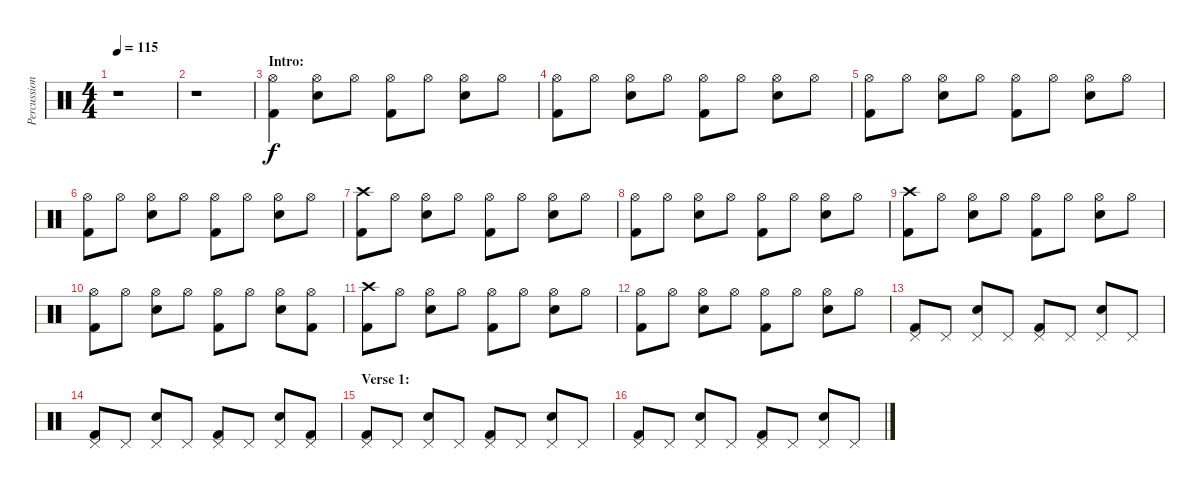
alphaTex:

\track ("Percussion" "Percussion") {instrument percussion}
\staff {score}
\articulation defaults
\ts (4 4)
\tempo 115
\clef neutral
\ks c
r.1{dy f} |
r.1 |
\section ("" "Intro:")
("Hi-Hat (open)" "Kick (hit) 2").4 ("Hi-Hat (open)" "Snare (hit) 2").8 "Hi-Hat (open)".8 ("Hi-Hat (open)" "Kick (hit) 2").8 "Hi-Hat (open)".8 ("Hi-Hat (open)" "Snare (hit) 2").8 "Hi-Hat (open)".8 |
("Hi-Hat (open)" "Kick (hit) 2").8 "Hi-Hat (open)".8 ("Hi-Hat (open)" "Snare (hit) 2").8 "Hi-Hat (open)".8 ("Hi-Hat (open)" "Kick (hit) 2").8 "Hi-Hat (open)".8 ("Hi-Hat (open)" "Snare (hit) 2").8 "Hi-Hat (open)".8 |
("Hi-Hat (open)" "Kick (hit) 2").8 "Hi-Hat (open)".8 ("Hi-Hat (open)" "Snare (hit) 2").8 "Hi-Hat (open)".8 ("Hi-Hat (open)" "Kick (hit) 2").8 "Hi-Hat (open)".8 ("Hi-Hat (open)" "Snare (hit) 2").8 "Hi-Hat (open)".8 |
("Hi-Hat (open)" "Kick (hit) 2").8 "Hi-Hat (open)".8 ("Hi-Hat (open)" "Snare (hit) 2").8 "Hi-Hat (open)".8 ("Hi-Hat (open)" "Kick (hit) 2").8 "Hi-Hat (open)".8 ("Hi-Hat (open)" "Snare (hit) 2").8 "Hi-Hat (open)".8 |
("Crash high (hit)" "Kick (hit) 2").8 "Hi-Hat (open)".8 ("Hi-Hat (open)" "Snare (hit) 2").8 "Hi-Hat (open)".8 ("Hi-Hat (open)" "Kick (hit) 2").8 "Hi-Hat (open)".8 ("Hi-Hat (open)" "Snare (hit) 2").8 "Hi-Hat (open)".8 |
("Hi-Hat (open)" "Kick (hit) 2").8 "Hi-Hat (open)".8 ("Hi-Hat (open)" "Snare (hit) 2").8 "Hi-Hat (open)".8 ("Hi-Hat (open)" "Kick (hit) 2").8 "Hi-Hat (open)".8 ("Hi-Hat (open)" "Snare (hit) 2").8 "Hi-Hat (open)".8 |
("Crash high (hit)" "Kick (hit) 2").8 "Hi-Hat (open)".8 ("Hi-Hat (open)" "Snare (hit) 2").8 "Hi-Hat (open)".8 ("Hi-Hat (open)" "Kick (hit) 2").8 "Hi-Hat (open)".8 ("Hi-Hat (open)" "Snare (hit) 2").8 "Hi-Hat (open)".8 |
("Hi-Hat (open)" "Kick (hit) 2").8 "Hi-Hat (open)".8 ("Hi-Hat (open)" "Snare (hit) 2").8 "Hi-Hat (open)".8 ("Hi-Hat (open)" "Kick (hit) 2").8 "Hi-Hat (open)".8 ("Hi-Hat (open)" "Snare (hit) 2").8 ("Hi-Hat (open)" "Kick (hit) 2").8 |
("Crash high (hit)" "Kick (hit) 2").8 "Hi-Hat (open)".8 ("Hi-Hat (open)" "Snare (hit) 2").8 "Hi-Hat (open)".8 ("Hi-Hat (open)" "Kick (hit) 2").8 "Hi-Hat (open)".8 ("Hi-Hat (open)" "Snare (hit) 2").8 "Hi-Hat (open)".8 |
("Hi-Hat (open)" "Kick (hit) 2").8 "Hi-Hat (open)".8 ("Hi-Hat (open)" "Snare (hit) 2").8 "Hi-Hat (open)".8 ("Hi-Hat (open)" "Kick (hit) 2").8 "Hi-Hat (open)".8 ("Hi-Hat (open)" "Snare (hit) 2").8 "Hi-Hat (open)".8 |
("Pedal Hi-Hat (hit)" "Kick (hit) 2").8 "Pedal Hi-Hat (hit)".8 ("Pedal Hi-Hat (hit)" "Snare (hit) 2").8 "Pedal Hi-Hat (hit)".8 ("Pedal Hi-Hat (hit)" "Kick (hit) 2").8 "Pedal Hi-Hat (hit)".8 ("Pedal Hi-Hat (hit)" "Snare (hit) 2").8 "Pedal Hi-Hat (hit)".8 |
("Pedal Hi-Hat (hit)" "Kick (hit) 2").8 "Pedal Hi-Hat (hit)".8 ("Pedal Hi-Hat (hit)" "Snare (hit) 2").8 "Pedal Hi-Hat (hit)".8 ("Pedal Hi-Hat (hit)" "Kick (hit) 2").8 "Pedal Hi-Hat (hit)".8 ("Pedal Hi-Hat (hit)" "Snare (hit) 2").8 ("Pedal Hi-Hat (hit)" "Kick (hit) 2").8 |
\section ("" "Verse 1:")
("Pedal Hi-Hat (hit)" "Kick (hit) 2").8 "Pedal Hi-Hat (hit)".8 ("Pedal Hi-Hat (hit)" "Snare (hit) 2").8 "Pedal Hi-Hat (hit)".8 ("Pedal Hi-Hat (hit)" "Kick (hit) 2").8 "Pedal Hi-Hat (hit)".8 ("Pedal Hi-Hat (hit)" "Snare (hit) 2").8 "Pedal Hi-Hat (hit)".8 |
("Pedal Hi-Hat (hit)" "Kick (hit) 2").8 "Pedal Hi-Hat (hit)".8 ("Pedal Hi-Hat (hit)" "Snare (hit) 2").8 "Pedal Hi-Hat (hit)".8 ("Pedal Hi-Hat (hit)" "Kick (hit) 2").8 "Pedal Hi-Hat (hit)".8 ("Pedal Hi-Hat (hit)" "Snare (hit) 2").8 "Pedal Hi-Hat (hit)".8
